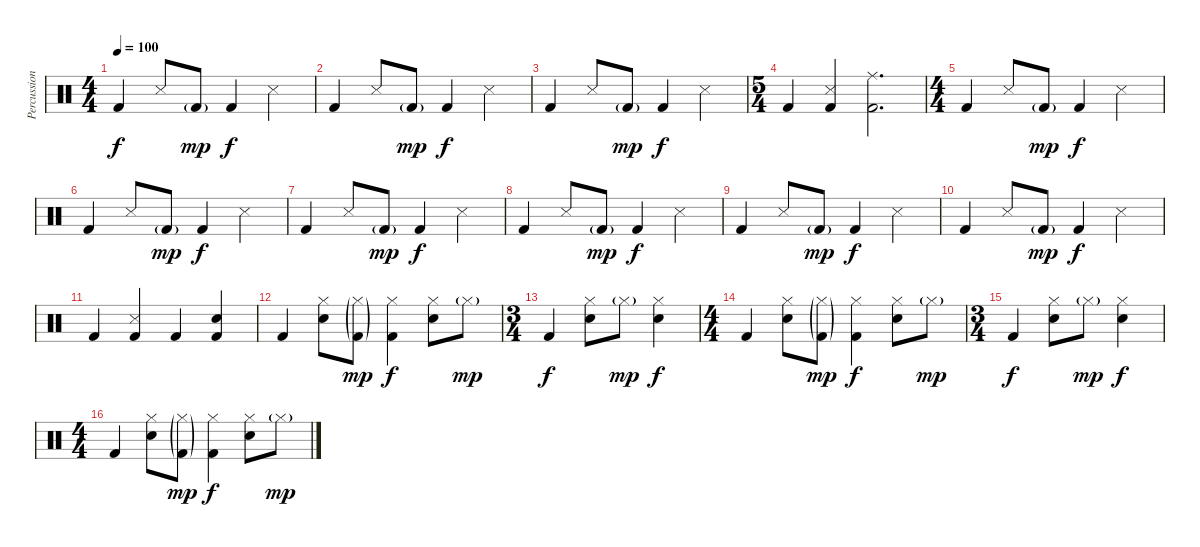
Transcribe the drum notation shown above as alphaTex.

\track ("Percussion" "Percussion") {instrument percussion}
\staff {score}
\articulation defaults
\ts (4 4)
\tempo 100
\clef neutral
\ks c "Kick (hit) 2".4{dy f} "Snare (side stick) 3".8 "Kick (hit) 2"{g}.8{dy mp} "Kick (hit) 2".4{dy f} "Snare (side stick) 3".4
|
"Kick (hit) 2".4 "Snare (side stick) 3".8 "Kick (hit) 2"{g}.8{dy mp} "Kick (hit) 2".4{dy f} "Snare (side stick) 3".4 |
"Kick (hit) 2".4 "Snare (side stick) 3".8 "Kick (hit) 2"{g}.8{dy mp} "Kick (hit) 2".4{dy f} "Snare (side stick) 3".4 |
\ts (5 4)
"Kick (hit) 2".4 ("Snare (side stick) 3" "Kick (hit) 2").4 ("Ride (middle)" "Kick (hit) 2").2{d} |
\ts (4 4)
"Kick (hit) 2".4 "Snare (side stick) 3".8 "Kick (hit) 2"{g}.8{dy mp} "Kick (hit) 2".4{dy f} "Snare (side stick) 3".4 |
"Kick (hit) 2".4 "Snare (side stick) 3".8 "Kick (hit) 2"{g}.8{dy mp} "Kick (hit) 2".4{dy f} "Snare (side stick) 3".4 |
"Kick (hit) 2".4 "Snare (side stick) 3".8 "Kick (hit) 2"{g}.8{dy mp} "Kick (hit) 2".4{dy f} "Snare (side stick) 3".4 |
"Kick (hit) 2".4 "Snare (side stick) 3".8 "Kick (hit) 2"{g}.8{dy mp} "Kick (hit) 2".4{dy f} "Snare (side stick) 3".4 |
"Kick (hit) 2".4 "Snare (side stick) 3".8 "Kick (hit) 2"{g}.8{dy mp} "Kick (hit) 2".4{dy f} "Snare (side stick) 3".4 |
"Kick (hit) 2".4 "Snare (side stick) 3".8 "Kick (hit) 2"{g}.8{dy mp} "Kick (hit) 2".4{dy f} "Snare (side stick) 3".4 |
"Kick (hit) 2".4 ("Snare (side stick) 3" "Kick (hit) 2").4 "Kick (hit) 2".4 ("Snare (hit) 2" "Kick (hit) 2").4 |
"Kick (hit) 2".4 ("Hi-Hat (closed)" "Snare (hit) 2").8 ("Hi-Hat (closed)"{g} "Kick (hit) 2"{g}).8{dy mp} ("Hi-Hat (closed)" "Kick (hit) 2").4{dy f} ("Hi-Hat (closed)" "Snare (hit) 2").8 "Hi-Hat (closed)"{g}.8{dy mp} |
\ts (3 4)
"Kick (hit) 2".4{dy f} ("Hi-Hat (closed)" "Snare (hit) 2").8 "Hi-Hat (closed)"{g}.8{dy mp} ("Hi-Hat (closed)" "Snare (hit) 2").4{dy f} |
\ts (4 4)
"Kick (hit) 2".4 ("Hi-Hat (closed)" "Snare (hit) 2").8 ("Hi-Hat (closed)"{g} "Kick (hit) 2"{g}).8{dy mp} ("Hi-Hat (closed)" "Kick (hit) 2").4{dy f} ("Hi-Hat (closed)" "Snare (hit) 2").8 "Hi-Hat (closed)"{g}.8{dy mp} |
\ts (3 4)
"Kick (hit) 2".4{dy f} ("Hi-Hat (closed)" "Snare (hit) 2").8 "Hi-Hat (closed)"{g}.8{dy mp} ("Hi-Hat (closed)" "Snare (hit) 2").4{dy f} |
\ts (4 4)
"Kick (hit) 2".4 ("Hi-Hat (closed)" "Snare (hit) 2").8 ("Hi-Hat (closed)"{g} "Kick (hit) 2"{g}).8{dy mp} ("Hi-Hat (closed)" "Kick (hit) 2").4{dy f} ("Hi-Hat (closed)" "Snare (hit) 2").8 "Hi-Hat (closed)"{g}.8{dy mp}
